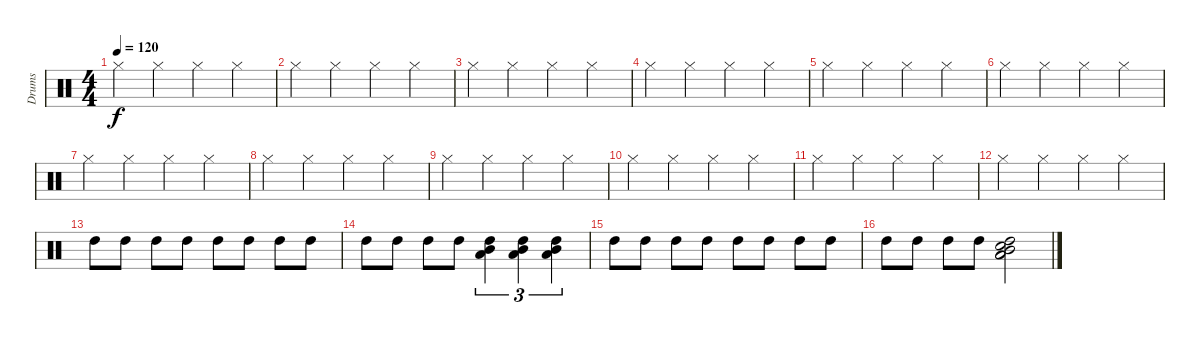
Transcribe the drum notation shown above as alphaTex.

\track ("Drums" "Drums") {instrument percussion}
\staff {score}
\articulation defaults
\ts (4 4)
\tempo 120
\clef neutral
\ks c "Hi-Hat (closed)".4{dy f} "Hi-Hat (closed)".4 "Hi-Hat (closed)".4 "Hi-Hat (closed)".4
|
"Hi-Hat (closed)".4 "Hi-Hat (closed)".4 "Hi-Hat (closed)".4 "Hi-Hat (closed)".4 |
"Hi-Hat (closed)".4 "Hi-Hat (closed)".4 "Hi-Hat (closed)".4 "Hi-Hat (closed)".4 |
"Hi-Hat (closed)".4 "Hi-Hat (closed)".4 "Hi-Hat (closed)".4 "Hi-Hat (closed)".4 |
"Hi-Hat (closed)".4 "Hi-Hat (closed)".4 "Hi-Hat (closed)".4 "Hi-Hat (closed)".4 |
"Hi-Hat (closed)".4 "Hi-Hat (closed)".4 "Hi-Hat (closed)".4 "Hi-Hat (closed)".4 |
"Hi-Hat (closed)".4 "Hi-Hat (closed)".4 "Hi-Hat (closed)".4 "Hi-Hat (closed)".4 |
"Hi-Hat (closed)".4 "Hi-Hat (closed)".4 "Hi-Hat (closed)".4 "Hi-Hat (closed)".4 |
"Hi-Hat (closed)".4 "Hi-Hat (closed)".4 "Hi-Hat (closed)".4 "Hi-Hat (closed)".4 |
"Hi-Hat (closed)".4 "Hi-Hat (closed)".4 "Hi-Hat (closed)".4 "Hi-Hat (closed)".4 |
"Hi-Hat (closed)".4 "Hi-Hat (closed)".4 "Hi-Hat (closed)".4 "Hi-Hat (closed)".4 |
"Hi-Hat (closed)".4 "Hi-Hat (closed)".4 "Hi-Hat (closed)".4 "Hi-Hat (closed)".4 |
"High Tom (hit)".8 "High Tom (hit)".8 "High Tom (hit)".8 "High Tom (hit)".8 "High Tom (hit)".8 "High Tom (hit)".8 "High Tom (hit)".8 "High Tom (hit)".8 |
"High Tom (hit)".8 "High Tom (hit)".8 "High Tom (hit)".8 "High Tom (hit)".8 ("Mid Tom (hit)" "Low Tom (hit)" "High Tom (hit)").4{tu (3 2)} ("Mid Tom (hit)" "Low Tom (hit)" "High Tom (hit)").4{tu (3 2)} ("Mid Tom (hit)" "Low Tom (hit)" "High Tom (hit)").4{tu (3 2)} |
"High Tom (hit)".8 "High Tom (hit)".8 "High Tom (hit)".8 "High Tom (hit)".8 "High Tom (hit)".8 "High Tom (hit)".8 "High Tom (hit)".8 "High Tom (hit)".8 |
"High Tom (hit)".8 "High Tom (hit)".8 "High Tom (hit)".8 "High Tom (hit)".8 ("Electric Snare (hit)" "Low Floor Tom (hit)" "Low Tom (hit)" "Mid Tom (hit)" "High Tom (hit)").2
